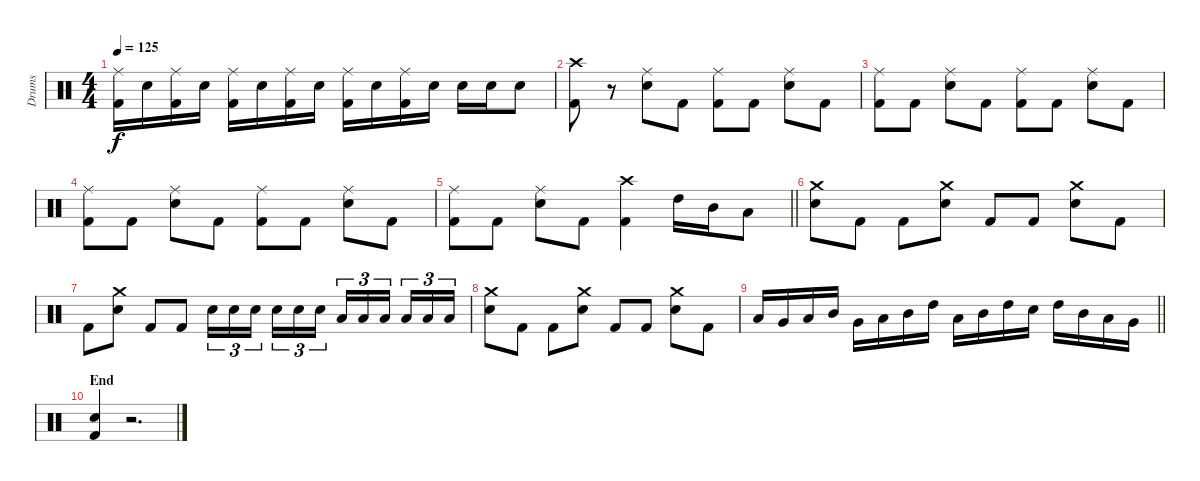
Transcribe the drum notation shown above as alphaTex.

\track ("Drums" "Drums") {instrument percussion}
\staff {score}
\articulation defaults
\ts (4 4)
\tempo 125
\clef neutral
\ks c
("Ride (middle)" "Kick (hit) 2").16{dy f} "Electric Snare (hit)".16 ("Ride (middle)" "Kick (hit) 2").16 "Electric Snare (hit)".16 ("Ride (middle)" "Kick (hit) 2").16 "Electric Snare (hit)".16 ("Ride (middle)" "Kick (hit) 2").16 "Electric Snare (hit)".16 ("Ride (middle)" "Kick (hit) 2").16 "Electric Snare (hit)".16 ("Ride (middle)" "Kick (hit) 2").16 "Electric Snare (hit)".16 "Electric Snare (hit)".16 "Electric Snare (hit)".16 "Electric Snare (hit)".8 |
("Crash high (hit)" "Kick (hit) 2").8 r.8 ("Ride (middle)" "Electric Snare (hit)").8 "Kick (hit) 2".8 ("Ride (middle)" "Kick (hit) 2").8 "Kick (hit) 2".8 ("Ride (middle)" "Electric Snare (hit)").8 "Kick (hit) 2".8 |
("Ride (middle)" "Kick (hit) 2").8 "Kick (hit) 2".8 ("Ride (middle)" "Electric Snare (hit)").8 "Kick (hit) 2".8 ("Ride (middle)" "Kick (hit) 2").8 "Kick (hit) 2".8 ("Ride (middle)" "Electric Snare (hit)").8 "Kick (hit) 2".8 |
("Ride (middle)" "Kick (hit) 2").8 "Kick (hit) 2".8 ("Ride (middle)" "Electric Snare (hit)").8 "Kick (hit) 2".8 ("Ride (middle)" "Kick (hit) 2").8 "Kick (hit) 2".8 ("Ride (middle)" "Electric Snare (hit)").8 "Kick (hit) 2".8 |
\barLineRight lightlight
("Ride (middle)" "Kick (hit) 2").8 "Kick (hit) 2".8 ("Ride (middle)" "Electric Snare (hit)").8 "Kick (hit) 2".8 ("Crash high (hit)" "Kick (hit) 2").4 "High Tom (hit)".16 "Mid Tom (hit)".16 "Low Tom (hit)".8 |
("Crash medium (hit)" "Electric Snare (hit)").8 "Kick (hit) 2".8 "Kick (hit) 2".8 ("Crash medium (hit)" "Electric Snare (hit)").8 "Kick (hit) 2".8 "Kick (hit) 2".8 ("Crash medium (hit)" "Electric Snare (hit)").8 "Kick (hit) 2".8 |
"Kick (hit) 2".8 ("Crash medium (hit)" "Electric Snare (hit)").8 "Kick (hit) 2".8 "Kick (hit) 2".8 "Electric Snare (hit)".16{tu (3 2)} "Electric Snare (hit)".16{tu (3 2)} "Electric Snare (hit)".16{tu (3 2) beam splitsecondary} "Electric Snare (hit)".16{tu (3 2)} "Electric Snare (hit)".16{tu (3 2)} "Electric Snare (hit)".16{tu (3 2)} "Low Tom (hit)".16{tu (3 2)} "Low Tom (hit)".16{tu (3 2)} "Low Tom (hit)".16{tu (3 2) beam splitsecondary} "Low Tom (hit)".16{tu (3 2)} "Low Tom (hit)".16{tu (3 2)} "Low Tom (hit)".16{tu (3 2)} |
("Crash medium (hit)" "Electric Snare (hit)").8 "Kick (hit) 2".8 "Kick (hit) 2".8 ("Crash medium (hit)" "Electric Snare (hit)").8 "Kick (hit) 2".8 "Kick (hit) 2".8 ("Crash medium (hit)" "Electric Snare (hit)").8 "Kick (hit) 2".8 |
\barLineRight lightlight "Low Floor Tom (hit)".16 "Very Low Tom (hit)".16 "Low Tom (hit)".16 "Mid Tom (hit)".16 "Very Low Tom (hit)".16 "Low Tom (hit)".16 "Mid Tom (hit)".16 "High Tom (hit)".16 "Low Tom (hit)".16 "Mid Tom (hit)".16 "High Tom (hit)".16 "Electric Snare (hit)".16 "High Tom (hit)".16 "Mid Tom (hit)".16 "Low Tom (hit)".16 "Very Low Tom (hit)".16
|
\section ("" "End")
("Electric Snare (hit)" "Kick (hit) 2").4 r.2{d}
